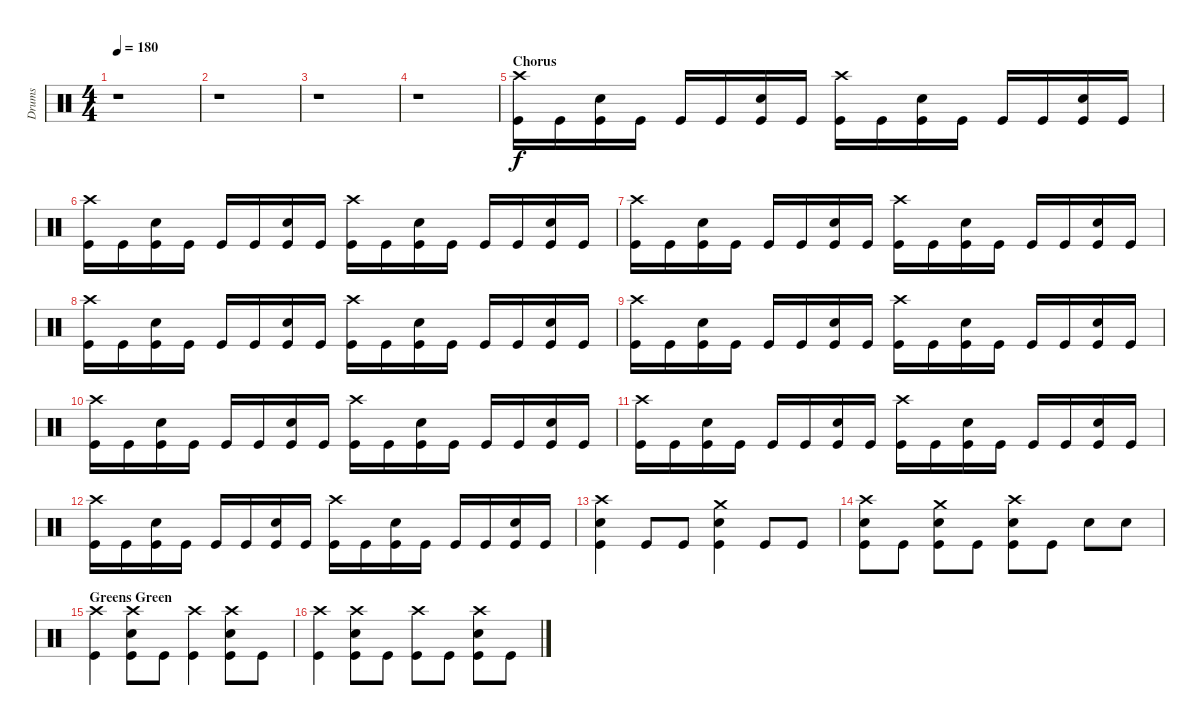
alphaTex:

\track ("Drums" "Drums") {instrument percussion}
\staff {score}
\articulation defaults
\ts (4 4)
\tempo 180
\clef neutral
\ks c
r.1{dy f} |
r.1 |
r.1 |
r.1 |
\section ("" "Chorus")
("Crash high (hit)" "Kick (hit)").16 "Kick (hit)".16 ("Snare (hit) 2" "Kick (hit)").16 "Kick (hit)".16 "Kick (hit)".16 "Kick (hit)".16 ("Snare (hit) 2" "Kick (hit)").16 "Kick (hit)".16 ("Crash high (hit)" "Kick (hit)").16 "Kick (hit)".16 ("Snare (hit) 2" "Kick (hit)").16 "Kick (hit)".16 "Kick (hit)".16 "Kick (hit)".16 ("Snare (hit) 2" "Kick (hit)").16 "Kick (hit)".16 |
("Crash high (hit)" "Kick (hit)").16 "Kick (hit)".16 ("Snare (hit) 2" "Kick (hit)").16 "Kick (hit)".16 "Kick (hit)".16 "Kick (hit)".16 ("Snare (hit) 2" "Kick (hit)").16 "Kick (hit)".16 ("Crash high (hit)" "Kick (hit)").16 "Kick (hit)".16 ("Snare (hit) 2" "Kick (hit)").16 "Kick (hit)".16 "Kick (hit)".16 "Kick (hit)".16 ("Snare (hit) 2" "Kick (hit)").16 "Kick (hit)".16 |
("Crash high (hit)" "Kick (hit)").16 "Kick (hit)".16 ("Snare (hit) 2" "Kick (hit)").16 "Kick (hit)".16 "Kick (hit)".16 "Kick (hit)".16 ("Snare (hit) 2" "Kick (hit)").16 "Kick (hit)".16 ("Crash high (hit)" "Kick (hit)").16 "Kick (hit)".16 ("Snare (hit) 2" "Kick (hit)").16 "Kick (hit)".16 "Kick (hit)".16 "Kick (hit)".16 ("Snare (hit) 2" "Kick (hit)").16 "Kick (hit)".16 |
("Crash high (hit)" "Kick (hit)").16 "Kick (hit)".16 ("Snare (hit) 2" "Kick (hit)").16 "Kick (hit)".16 "Kick (hit)".16 "Kick (hit)".16 ("Snare (hit) 2" "Kick (hit)").16 "Kick (hit)".16 ("Crash high (hit)" "Kick (hit)").16 "Kick (hit)".16 ("Snare (hit) 2" "Kick (hit)").16 "Kick (hit)".16 "Kick (hit)".16 "Kick (hit)".16 ("Snare (hit) 2" "Kick (hit)").16 "Kick (hit)".16 |
("Crash high (hit)" "Kick (hit)").16 "Kick (hit)".16 ("Snare (hit) 2" "Kick (hit)").16 "Kick (hit)".16 "Kick (hit)".16 "Kick (hit)".16 ("Snare (hit) 2" "Kick (hit)").16 "Kick (hit)".16 ("Crash high (hit)" "Kick (hit)").16 "Kick (hit)".16 ("Snare (hit) 2" "Kick (hit)").16 "Kick (hit)".16 "Kick (hit)".16 "Kick (hit)".16 ("Snare (hit) 2" "Kick (hit)").16 "Kick (hit)".16 |
("Crash high (hit)" "Kick (hit)").16 "Kick (hit)".16 ("Snare (hit) 2" "Kick (hit)").16 "Kick (hit)".16 "Kick (hit)".16 "Kick (hit)".16 ("Snare (hit) 2" "Kick (hit)").16 "Kick (hit)".16 ("Crash high (hit)" "Kick (hit)").16 "Kick (hit)".16 ("Snare (hit) 2" "Kick (hit)").16 "Kick (hit)".16 "Kick (hit)".16 "Kick (hit)".16 ("Snare (hit) 2" "Kick (hit)").16 "Kick (hit)".16 |
("Crash high (hit)" "Kick (hit)").16 "Kick (hit)".16 ("Snare (hit) 2" "Kick (hit)").16 "Kick (hit)".16 "Kick (hit)".16 "Kick (hit)".16 ("Snare (hit) 2" "Kick (hit)").16 "Kick (hit)".16 ("Crash high (hit)" "Kick (hit)").16 "Kick (hit)".16 ("Snare (hit) 2" "Kick (hit)").16 "Kick (hit)".16 "Kick (hit)".16 "Kick (hit)".16 ("Snare (hit) 2" "Kick (hit)").16 "Kick (hit)".16 |
("Crash high (hit)" "Kick (hit)").16 "Kick (hit)".16 ("Snare (hit) 2" "Kick (hit)").16 "Kick (hit)".16 "Kick (hit)".16 "Kick (hit)".16 ("Snare (hit) 2" "Kick (hit)").16 "Kick (hit)".16 ("Crash high (hit)" "Kick (hit)").16 "Kick (hit)".16 ("Snare (hit) 2" "Kick (hit)").16 "Kick (hit)".16 "Kick (hit)".16 "Kick (hit)".16 ("Snare (hit) 2" "Kick (hit)").16 "Kick (hit)".16 |
("Crash high (hit)" "Snare (hit) 2" "Kick (hit)").4 "Kick (hit)".8 "Kick (hit)".8 ("Crash medium (hit)" "Snare (hit) 2" "Kick (hit)").4 "Kick (hit)".8 "Kick (hit)".8 |
("Crash high (hit)" "Snare (hit) 2" "Kick (hit)").8 "Kick (hit)".8 ("Crash medium (hit)" "Snare (hit) 2" "Kick (hit)").8 "Kick (hit)".8 ("Crash high (hit)" "Snare (hit) 2" "Kick (hit)").8 "Kick (hit)".8 "Snare (hit) 2".8 "Snare (hit) 2".8 |
\section ("" "Greens Green")
("Crash high (hit)" "Kick (hit)").4 ("Crash high (hit)" "Snare (hit) 2" "Kick (hit)").8 "Kick (hit)".8 ("Crash high (hit)" "Kick (hit)").4 ("Crash high (hit)" "Snare (hit) 2" "Kick (hit)").8 "Kick (hit)".8 |
("Crash high (hit)" "Kick (hit)").4 ("Crash high (hit)" "Snare (hit) 2" "Kick (hit)").8 "Kick (hit)".8 ("Crash high (hit)" "Kick (hit)").8 "Kick (hit)".8 ("Crash high (hit)" "Snare (hit) 2" "Kick (hit)").8 "Kick (hit)".8
